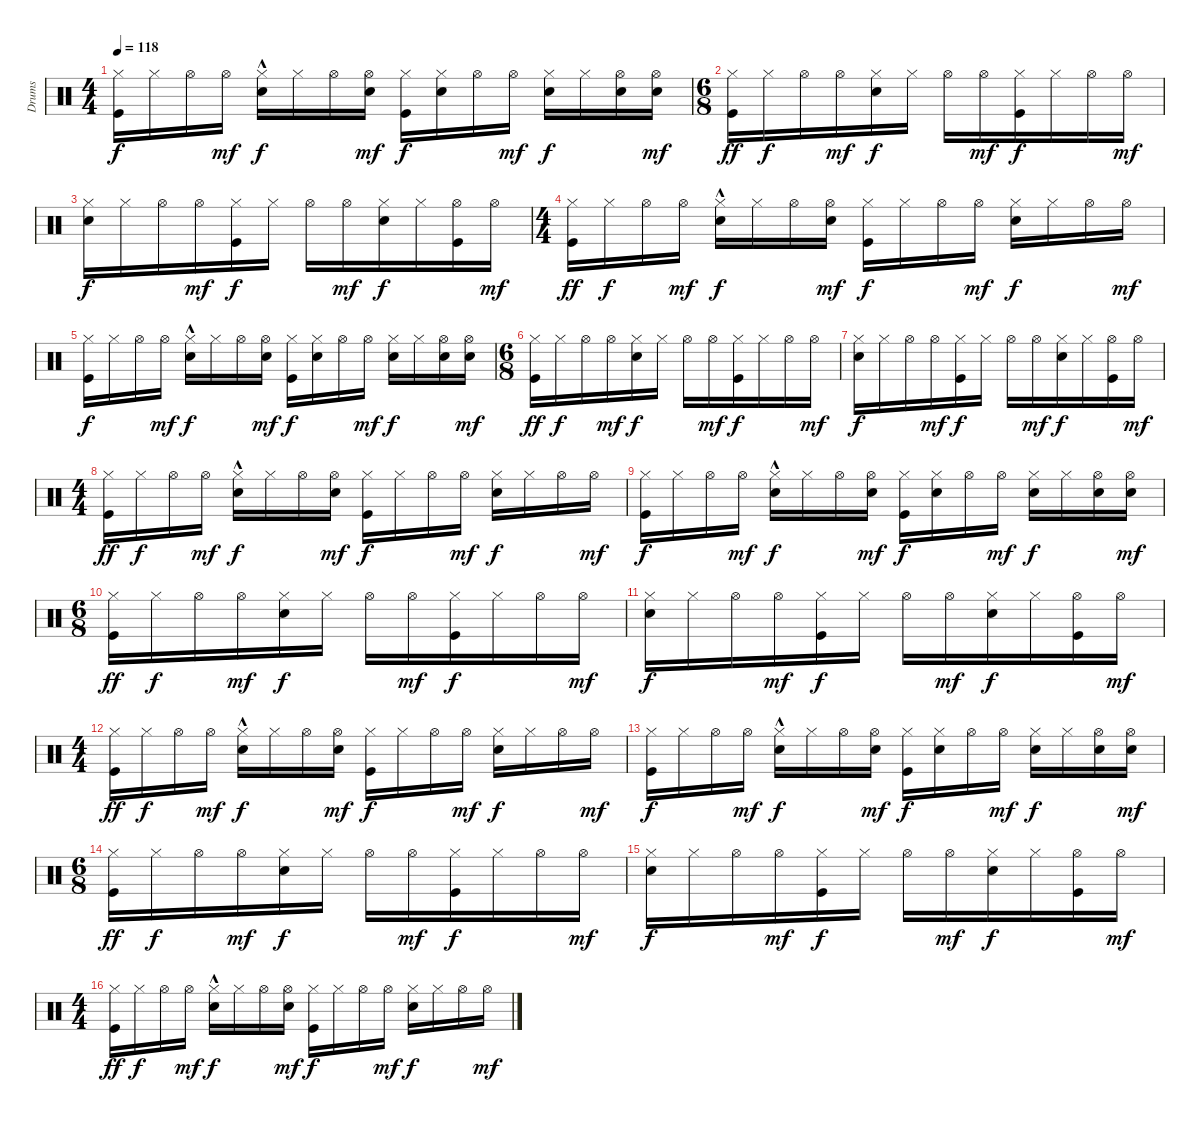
\track ("Drums" "Drums") {instrument percussion}
\staff {score}
\articulation defaults
\ts (4 4)
\tempo 118
\clef neutral
\ks c
("Kick (hit)" "Hi-Hat (closed)").16{dy f} "Hi-Hat (closed)".16 "Hi-Hat (open)".16 "Hi-Hat (open)".16{dy mf} ("Electric Snare (hit)"{hac} "Hi-Hat (closed)").16{dy f} "Hi-Hat (closed)".16 "Hi-Hat (open)".16 ("Hi-Hat (open)" "Electric Snare (hit)").16{dy mf} ("Hi-Hat (closed)" "Kick (hit)").16{dy f} ("Electric Snare (hit)" "Hi-Hat (closed)").16 "Hi-Hat (open)".16 "Hi-Hat (open)".16{dy mf} ("Electric Snare (hit)" "Hi-Hat (closed)").16{dy f} "Hi-Hat (closed)".16 ("Electric Snare (hit)" "Hi-Hat (open)").16 ("Electric Snare (hit)" "Hi-Hat (open)").16{dy mf} |
\ts (6 8)
("Hi-Hat (closed)" "Kick (hit)").16{dy ff} "Hi-Hat (closed)".16{dy f} "Hi-Hat (open)".16 "Hi-Hat (open)".16{dy mf} ("Electric Snare (hit)" "Hi-Hat (closed)").16{dy f} "Hi-Hat (closed)".16 "Hi-Hat (open)".16 "Hi-Hat (open)".16{dy mf} ("Kick (hit)" "Hi-Hat (closed)").16{dy f} "Hi-Hat (closed)".16 "Hi-Hat (open)".16 "Hi-Hat (open)".16{dy mf} |
("Electric Snare (hit)" "Hi-Hat (closed)").16{dy f} "Hi-Hat (closed)".16 "Hi-Hat (open)".16 "Hi-Hat (open)".16{dy mf} ("Kick (hit)" "Hi-Hat (closed)").16{dy f} "Hi-Hat (closed)".16 "Hi-Hat (open)".16 "Hi-Hat (open)".16{dy mf} ("Electric Snare (hit)" "Hi-Hat (closed)").16{dy f} "Hi-Hat (closed)".16 ("Kick (hit)" "Hi-Hat (open)").16 "Hi-Hat (open)".16{dy mf} |
\ts (4 4)
("Kick (hit)" "Hi-Hat (closed)").16{dy ff} "Hi-Hat (closed)".16{dy f} "Hi-Hat (open)".16 "Hi-Hat (open)".16{dy mf} ("Electric Snare (hit)"{hac} "Hi-Hat (closed)").16{dy f} "Hi-Hat (closed)".16 "Hi-Hat (open)".16 ("Hi-Hat (open)" "Electric Snare (hit)").16{dy mf} ("Hi-Hat (closed)" "Kick (hit)").16{dy f} "Hi-Hat (closed)".16 "Hi-Hat (open)".16 "Hi-Hat (open)".16{dy mf} ("Electric Snare (hit)" "Hi-Hat (closed)").16{dy f} "Hi-Hat (closed)".16 "Hi-Hat (open)".16 "Hi-Hat (open)".16{dy mf} |
("Kick (hit)" "Hi-Hat (closed)").16{dy f} "Hi-Hat (closed)".16 "Hi-Hat (open)".16 "Hi-Hat (open)".16{dy mf} ("Electric Snare (hit)"{hac} "Hi-Hat (closed)").16{dy f} "Hi-Hat (closed)".16 "Hi-Hat (open)".16 ("Hi-Hat (open)" "Electric Snare (hit)").16{dy mf} ("Hi-Hat (closed)" "Kick (hit)").16{dy f} ("Electric Snare (hit)" "Hi-Hat (closed)").16 "Hi-Hat (open)".16 "Hi-Hat (open)".16{dy mf} ("Electric Snare (hit)" "Hi-Hat (closed)").16{dy f} "Hi-Hat (closed)".16 ("Electric Snare (hit)" "Hi-Hat (open)").16 ("Electric Snare (hit)" "Hi-Hat (open)").16{dy mf} |
\ts (6 8)
("Hi-Hat (closed)" "Kick (hit)").16{dy ff} "Hi-Hat (closed)".16{dy f} "Hi-Hat (open)".16 "Hi-Hat (open)".16{dy mf} ("Electric Snare (hit)" "Hi-Hat (closed)").16{dy f} "Hi-Hat (closed)".16 "Hi-Hat (open)".16 "Hi-Hat (open)".16{dy mf} ("Kick (hit)" "Hi-Hat (closed)").16{dy f} "Hi-Hat (closed)".16 "Hi-Hat (open)".16 "Hi-Hat (open)".16{dy mf} |
("Electric Snare (hit)" "Hi-Hat (closed)").16{dy f} "Hi-Hat (closed)".16 "Hi-Hat (open)".16 "Hi-Hat (open)".16{dy mf} ("Kick (hit)" "Hi-Hat (closed)").16{dy f} "Hi-Hat (closed)".16 "Hi-Hat (open)".16 "Hi-Hat (open)".16{dy mf} ("Electric Snare (hit)" "Hi-Hat (closed)").16{dy f} "Hi-Hat (closed)".16 ("Kick (hit)" "Hi-Hat (open)").16 "Hi-Hat (open)".16{dy mf} |
\ts (4 4)
("Kick (hit)" "Hi-Hat (closed)").16{dy ff} "Hi-Hat (closed)".16{dy f} "Hi-Hat (open)".16 "Hi-Hat (open)".16{dy mf} ("Electric Snare (hit)"{hac} "Hi-Hat (closed)").16{dy f} "Hi-Hat (closed)".16 "Hi-Hat (open)".16 ("Hi-Hat (open)" "Electric Snare (hit)").16{dy mf} ("Hi-Hat (closed)" "Kick (hit)").16{dy f} "Hi-Hat (closed)".16 "Hi-Hat (open)".16 "Hi-Hat (open)".16{dy mf} ("Electric Snare (hit)" "Hi-Hat (closed)").16{dy f} "Hi-Hat (closed)".16 "Hi-Hat (open)".16 "Hi-Hat (open)".16{dy mf} |
("Kick (hit)" "Hi-Hat (closed)").16{dy f} "Hi-Hat (closed)".16 "Hi-Hat (open)".16 "Hi-Hat (open)".16{dy mf} ("Electric Snare (hit)"{hac} "Hi-Hat (closed)").16{dy f} "Hi-Hat (closed)".16 "Hi-Hat (open)".16 ("Hi-Hat (open)" "Electric Snare (hit)").16{dy mf} ("Hi-Hat (closed)" "Kick (hit)").16{dy f} ("Electric Snare (hit)" "Hi-Hat (closed)").16 "Hi-Hat (open)".16 "Hi-Hat (open)".16{dy mf} ("Electric Snare (hit)" "Hi-Hat (closed)").16{dy f} "Hi-Hat (closed)".16 ("Electric Snare (hit)" "Hi-Hat (open)").16 ("Electric Snare (hit)" "Hi-Hat (open)").16{dy mf} |
\ts (6 8)
("Hi-Hat (closed)" "Kick (hit)").16{dy ff} "Hi-Hat (closed)".16{dy f} "Hi-Hat (open)".16 "Hi-Hat (open)".16{dy mf} ("Electric Snare (hit)" "Hi-Hat (closed)").16{dy f} "Hi-Hat (closed)".16 "Hi-Hat (open)".16 "Hi-Hat (open)".16{dy mf} ("Kick (hit)" "Hi-Hat (closed)").16{dy f} "Hi-Hat (closed)".16 "Hi-Hat (open)".16 "Hi-Hat (open)".16{dy mf} |
("Electric Snare (hit)" "Hi-Hat (closed)").16{dy f} "Hi-Hat (closed)".16 "Hi-Hat (open)".16 "Hi-Hat (open)".16{dy mf} ("Kick (hit)" "Hi-Hat (closed)").16{dy f} "Hi-Hat (closed)".16 "Hi-Hat (open)".16 "Hi-Hat (open)".16{dy mf} ("Electric Snare (hit)" "Hi-Hat (closed)").16{dy f} "Hi-Hat (closed)".16 ("Kick (hit)" "Hi-Hat (open)").16 "Hi-Hat (open)".16{dy mf} |
\ts (4 4)
("Kick (hit)" "Hi-Hat (closed)").16{dy ff} "Hi-Hat (closed)".16{dy f} "Hi-Hat (open)".16 "Hi-Hat (open)".16{dy mf} ("Electric Snare (hit)"{hac} "Hi-Hat (closed)").16{dy f} "Hi-Hat (closed)".16 "Hi-Hat (open)".16 ("Hi-Hat (open)" "Electric Snare (hit)").16{dy mf} ("Hi-Hat (closed)" "Kick (hit)").16{dy f} "Hi-Hat (closed)".16 "Hi-Hat (open)".16 "Hi-Hat (open)".16{dy mf} ("Electric Snare (hit)" "Hi-Hat (closed)").16{dy f} "Hi-Hat (closed)".16 "Hi-Hat (open)".16 "Hi-Hat (open)".16{dy mf} |
("Kick (hit)" "Hi-Hat (closed)").16{dy f} "Hi-Hat (closed)".16 "Hi-Hat (open)".16 "Hi-Hat (open)".16{dy mf} ("Electric Snare (hit)"{hac} "Hi-Hat (closed)").16{dy f} "Hi-Hat (closed)".16 "Hi-Hat (open)".16 ("Hi-Hat (open)" "Electric Snare (hit)").16{dy mf} ("Hi-Hat (closed)" "Kick (hit)").16{dy f} ("Electric Snare (hit)" "Hi-Hat (closed)").16 "Hi-Hat (open)".16 "Hi-Hat (open)".16{dy mf} ("Electric Snare (hit)" "Hi-Hat (closed)").16{dy f} "Hi-Hat (closed)".16 ("Electric Snare (hit)" "Hi-Hat (open)").16 ("Electric Snare (hit)" "Hi-Hat (open)").16{dy mf} |
\ts (6 8)
("Hi-Hat (closed)" "Kick (hit)").16{dy ff} "Hi-Hat (closed)".16{dy f} "Hi-Hat (open)".16 "Hi-Hat (open)".16{dy mf} ("Electric Snare (hit)" "Hi-Hat (closed)").16{dy f} "Hi-Hat (closed)".16 "Hi-Hat (open)".16 "Hi-Hat (open)".16{dy mf} ("Kick (hit)" "Hi-Hat (closed)").16{dy f} "Hi-Hat (closed)".16 "Hi-Hat (open)".16 "Hi-Hat (open)".16{dy mf} |
("Electric Snare (hit)" "Hi-Hat (closed)").16{dy f} "Hi-Hat (closed)".16 "Hi-Hat (open)".16 "Hi-Hat (open)".16{dy mf} ("Kick (hit)" "Hi-Hat (closed)").16{dy f} "Hi-Hat (closed)".16 "Hi-Hat (open)".16 "Hi-Hat (open)".16{dy mf} ("Electric Snare (hit)" "Hi-Hat (closed)").16{dy f} "Hi-Hat (closed)".16 ("Kick (hit)" "Hi-Hat (open)").16 "Hi-Hat (open)".16{dy mf} |
\ts (4 4)
("Kick (hit)" "Hi-Hat (closed)").16{dy ff} "Hi-Hat (closed)".16{dy f} "Hi-Hat (open)".16 "Hi-Hat (open)".16{dy mf} ("Electric Snare (hit)"{hac} "Hi-Hat (closed)").16{dy f} "Hi-Hat (closed)".16 "Hi-Hat (open)".16 ("Hi-Hat (open)" "Electric Snare (hit)").16{dy mf} ("Hi-Hat (closed)" "Kick (hit)").16{dy f} "Hi-Hat (closed)".16 "Hi-Hat (open)".16 "Hi-Hat (open)".16{dy mf} ("Electric Snare (hit)" "Hi-Hat (closed)").16{dy f} "Hi-Hat (closed)".16 "Hi-Hat (open)".16 "Hi-Hat (open)".16{dy mf}
